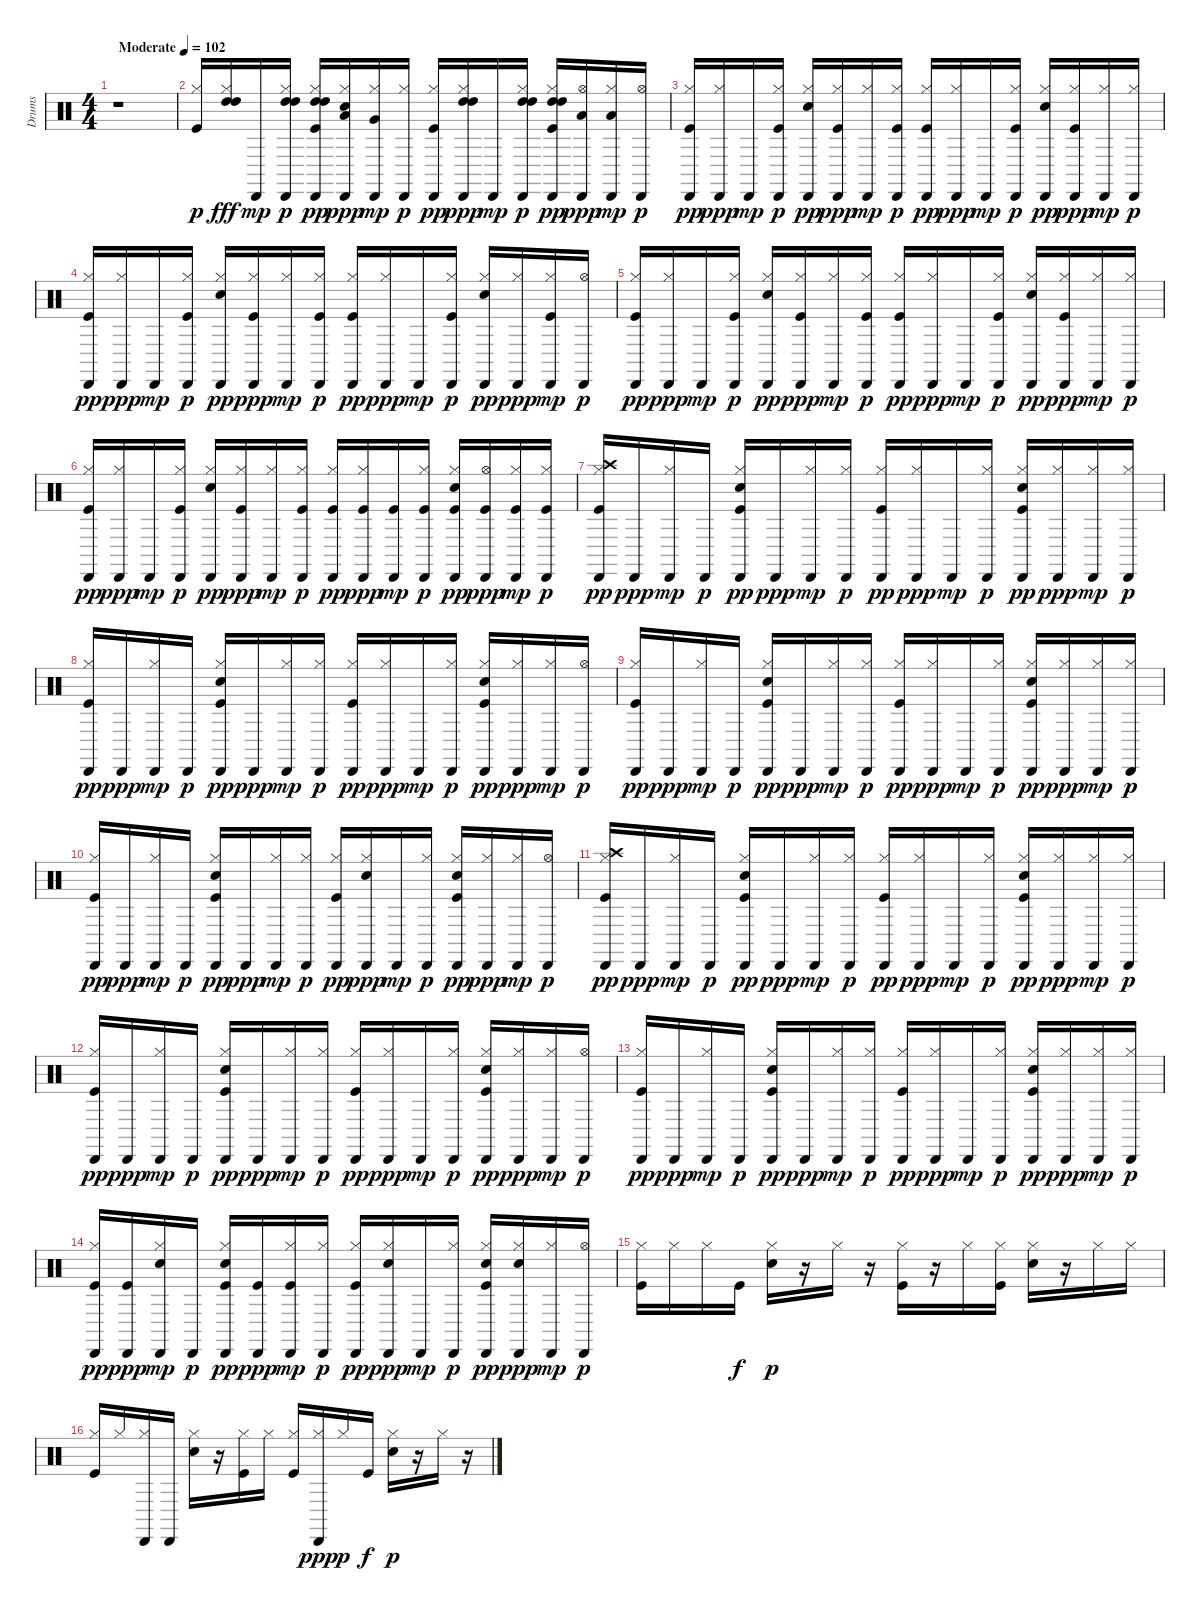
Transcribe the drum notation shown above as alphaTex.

\track ("Drums" "Drums") {instrument percussion}
\staff {score}
\articulation defaults
\ts (4 4)
\tempo (102 "Moderate")
\clef neutral
\ks c
r.1{dy p} |
("Kick (hit)" "Hi-Hat (closed)").16 ("High Tom (hit)" "Hi-Hat (closed)" "High Tom (hit)").16{dy fff} "Cabasa (hit)".16{dy mp} ("High Tom (hit)" "Hi-Hat (closed)" "High Tom (hit)" "Cabasa (hit)").16{dy p} ("High Tom (hit)" "Kick (hit)" "Hi-Hat (closed)" "High Tom (hit)" "Cabasa (hit)").16{dy pp} ("Snare (hit) 2" "Hi-Hat (closed)" "Low Tom (hit)" "Cabasa (hit)").16{dy ppp} ("Hi-Hat (closed)" "Very Low Tom (hit)" "Cabasa (hit)").16{dy mp} ("Hi-Hat (closed)" "Cabasa (hit)").16{dy p} ("Kick (hit)" "Hi-Hat (closed)" "Cabasa (hit)").16{dy pp} ("High Tom (hit)" "Hi-Hat (closed)" "High Tom (hit)" "Cabasa (hit)").16{dy ppp} "Cabasa (hit)".16{dy mp} ("High Tom (hit)" "Hi-Hat (closed)" "High Tom (hit)" "Cabasa (hit)").16{dy p} ("High Tom (hit)" "Kick (hit)" "Hi-Hat (closed)" "High Tom (hit)" "Cabasa (hit)").16{dy pp} ("Low Tom (hit)" "Hi-Hat (open)" "Cabasa (hit)").16{dy ppp} ("Low Floor Tom (hit)" "Hi-Hat (closed)" "Cabasa (hit)").16{dy mp} ("Hi-Hat (open)" "Cabasa (hit)").16{dy p} |
("Kick (hit)" "Hi-Hat (closed)" "Cabasa (hit)").16{dy pp} ("Hi-Hat (closed)" "Cabasa (hit)").16{dy ppp} "Cabasa (hit)".16{dy mp} ("Kick (hit)" "Hi-Hat (closed)" "Cabasa (hit)").16{dy p} ("Snare (hit) 2" "Hi-Hat (closed)" "Cabasa (hit)").16{dy pp} ("Kick (hit)" "Hi-Hat (closed)" "Cabasa (hit)").16{dy ppp} ("Hi-Hat (closed)" "Cabasa (hit)").16{dy mp} ("Kick (hit)" "Hi-Hat (closed)" "Cabasa (hit)").16{dy p} ("Kick (hit)" "Hi-Hat (closed)" "Cabasa (hit)").16{dy pp} ("Hi-Hat (closed)" "Cabasa (hit)").16{dy ppp} "Cabasa (hit)".16{dy mp} ("Kick (hit)" "Hi-Hat (closed)" "Cabasa (hit)").16{dy p} ("Snare (hit) 2" "Hi-Hat (closed)" "Cabasa (hit)").16{dy pp} ("Kick (hit)" "Hi-Hat (closed)" "Cabasa (hit)").16{dy ppp} ("Hi-Hat (closed)" "Cabasa (hit)").16{dy mp} ("Hi-Hat (closed)" "Cabasa (hit)").16{dy p} |
("Kick (hit)" "Hi-Hat (closed)" "Cabasa (hit)").16{dy pp} ("Hi-Hat (closed)" "Cabasa (hit)").16{dy ppp} "Cabasa (hit)".16{dy mp} ("Kick (hit)" "Hi-Hat (closed)" "Cabasa (hit)").16{dy p} ("Snare (hit) 2" "Hi-Hat (closed)" "Cabasa (hit)").16{dy pp} ("Kick (hit)" "Hi-Hat (closed)" "Cabasa (hit)").16{dy ppp} ("Hi-Hat (closed)" "Cabasa (hit)").16{dy mp} ("Kick (hit)" "Hi-Hat (closed)" "Cabasa (hit)").16{dy p} ("Kick (hit)" "Hi-Hat (closed)" "Cabasa (hit)").16{dy pp} ("Hi-Hat (closed)" "Cabasa (hit)").16{dy ppp} "Cabasa (hit)".16{dy mp} ("Kick (hit)" "Hi-Hat (closed)" "Cabasa (hit)").16{dy p} ("Snare (hit) 2" "Hi-Hat (closed)" "Cabasa (hit)").16{dy pp} ("Hi-Hat (closed)" "Cabasa (hit)").16{dy ppp} ("Kick (hit)" "Hi-Hat (closed)" "Cabasa (hit)").16{dy mp} ("Hi-Hat (open)" "Cabasa (hit)").16{dy p} |
("Kick (hit)" "Hi-Hat (closed)" "Cabasa (hit)").16{dy pp} ("Hi-Hat (closed)" "Cabasa (hit)").16{dy ppp} "Cabasa (hit)".16{dy mp} ("Kick (hit)" "Hi-Hat (closed)" "Cabasa (hit)").16{dy p} ("Snare (hit) 2" "Hi-Hat (closed)" "Cabasa (hit)").16{dy pp} ("Kick (hit)" "Hi-Hat (closed)" "Cabasa (hit)").16{dy ppp} ("Hi-Hat (closed)" "Cabasa (hit)").16{dy mp} ("Kick (hit)" "Hi-Hat (closed)" "Cabasa (hit)").16{dy p} ("Kick (hit)" "Hi-Hat (closed)" "Cabasa (hit)").16{dy pp} ("Hi-Hat (closed)" "Cabasa (hit)").16{dy ppp} "Cabasa (hit)".16{dy mp} ("Kick (hit)" "Hi-Hat (closed)" "Cabasa (hit)").16{dy p} ("Snare (hit) 2" "Hi-Hat (closed)" "Cabasa (hit)").16{dy pp} ("Kick (hit)" "Hi-Hat (closed)" "Cabasa (hit)").16{dy ppp} ("Hi-Hat (closed)" "Cabasa (hit)").16{dy mp} ("Hi-Hat (closed)" "Cabasa (hit)").16{dy p} |
("Kick (hit)" "Hi-Hat (closed)" "Cabasa (hit)").16{dy pp} ("Hi-Hat (closed)" "Cabasa (hit)").16{dy ppp} "Cabasa (hit)".16{dy mp} ("Kick (hit)" "Hi-Hat (closed)" "Cabasa (hit)").16{dy p} ("Snare (hit) 2" "Hi-Hat (closed)" "Cabasa (hit)").16{dy pp} ("Kick (hit)" "Hi-Hat (closed)" "Cabasa (hit)").16{dy ppp} ("Hi-Hat (closed)" "Cabasa (hit)").16{dy mp} ("Kick (hit)" "Hi-Hat (closed)" "Cabasa (hit)").16{dy p} ("Kick (hit)" "Hi-Hat (closed)" "Cabasa (hit)").16{dy pp} ("Kick (hit)" "Hi-Hat (closed)" "Cabasa (hit)").16{dy ppp} ("Kick (hit)" "Cabasa (hit)").16{dy mp} ("Kick (hit)" "Hi-Hat (closed)" "Cabasa (hit)").16{dy p} ("Kick (hit)" "Snare (hit) 2" "Hi-Hat (closed)" "Cabasa (hit)").16{dy pp} ("Kick (hit)" "Hi-Hat (open)" "Cabasa (hit)").16{dy ppp} ("Kick (hit)" "Hi-Hat (closed)" "Cabasa (hit)").16{dy mp} ("Kick (hit)" "Hi-Hat (closed)" "Cabasa (hit)").16{dy p} |
("Kick (hit)" "Hi-Hat (closed)" "Crash high (hit)" "Cabasa (hit)").16{dy pp} "Cabasa (hit)".16{dy ppp} ("Hi-Hat (closed)" "Cabasa (hit)").16{dy mp} "Cabasa (hit)".16{dy p} ("Kick (hit)" "Snare (hit) 2" "Hi-Hat (closed)" "Cabasa (hit)").16{dy pp} "Cabasa (hit)".16{dy ppp} ("Hi-Hat (closed)" "Cabasa (hit)").16{dy mp} ("Hi-Hat (closed)" "Cabasa (hit)").16{dy p} ("Kick (hit)" "Hi-Hat (closed)" "Cabasa (hit)").16{dy pp} ("Hi-Hat (closed)" "Cabasa (hit)").16{dy ppp} "Cabasa (hit)".16{dy mp} ("Hi-Hat (closed)" "Cabasa (hit)").16{dy p} ("Kick (hit)" "Snare (hit) 2" "Hi-Hat (closed)" "Cabasa (hit)").16{dy pp} ("Hi-Hat (closed)" "Cabasa (hit)").16{dy ppp} ("Hi-Hat (closed)" "Cabasa (hit)").16{dy mp} ("Hi-Hat (closed)" "Cabasa (hit)").16{dy p} |
("Kick (hit)" "Hi-Hat (closed)" "Cabasa (hit)").16{dy pp} "Cabasa (hit)".16{dy ppp} ("Hi-Hat (closed)" "Cabasa (hit)").16{dy mp} "Cabasa (hit)".16{dy p} ("Kick (hit)" "Snare (hit) 2" "Hi-Hat (closed)" "Cabasa (hit)").16{dy pp} "Cabasa (hit)".16{dy ppp} ("Hi-Hat (closed)" "Cabasa (hit)").16{dy mp} ("Hi-Hat (closed)" "Cabasa (hit)").16{dy p} ("Kick (hit)" "Hi-Hat (closed)" "Cabasa (hit)").16{dy pp} ("Hi-Hat (closed)" "Cabasa (hit)").16{dy ppp} "Cabasa (hit)".16{dy mp} ("Hi-Hat (closed)" "Cabasa (hit)").16{dy p} ("Kick (hit)" "Snare (hit) 2" "Hi-Hat (closed)" "Cabasa (hit)").16{dy pp} ("Hi-Hat (closed)" "Cabasa (hit)").16{dy ppp} ("Hi-Hat (closed)" "Cabasa (hit)").16{dy mp} ("Hi-Hat (open)" "Cabasa (hit)").16{dy p} |
("Kick (hit)" "Hi-Hat (closed)" "Cabasa (hit)").16{dy pp} "Cabasa (hit)".16{dy ppp} ("Hi-Hat (closed)" "Cabasa (hit)").16{dy mp} "Cabasa (hit)".16{dy p} ("Kick (hit)" "Snare (hit) 2" "Hi-Hat (closed)" "Cabasa (hit)").16{dy pp} "Cabasa (hit)".16{dy ppp} ("Hi-Hat (closed)" "Cabasa (hit)").16{dy mp} ("Hi-Hat (closed)" "Cabasa (hit)").16{dy p} ("Kick (hit)" "Hi-Hat (closed)" "Cabasa (hit)").16{dy pp} ("Hi-Hat (closed)" "Cabasa (hit)").16{dy ppp} "Cabasa (hit)".16{dy mp} ("Hi-Hat (closed)" "Cabasa (hit)").16{dy p} ("Kick (hit)" "Snare (hit) 2" "Hi-Hat (closed)" "Cabasa (hit)").16{dy pp} ("Hi-Hat (closed)" "Cabasa (hit)").16{dy ppp} ("Hi-Hat (closed)" "Cabasa (hit)").16{dy mp} ("Hi-Hat (closed)" "Cabasa (hit)").16{dy p} |
("Kick (hit)" "Hi-Hat (closed)" "Cabasa (hit)").16{dy pp} "Cabasa (hit)".16{dy ppp} ("Hi-Hat (closed)" "Cabasa (hit)").16{dy mp} "Cabasa (hit)".16{dy p} ("Kick (hit)" "Snare (hit) 2" "Hi-Hat (closed)" "Cabasa (hit)").16{dy pp} "Cabasa (hit)".16{dy ppp} ("Hi-Hat (closed)" "Cabasa (hit)").16{dy mp} ("Hi-Hat (closed)" "Cabasa (hit)").16{dy p} ("Kick (hit)" "Hi-Hat (closed)" "Cabasa (hit)").16{dy pp} ("Snare (hit) 2" "Hi-Hat (closed)" "Cabasa (hit)").16{dy ppp} "Cabasa (hit)".16{dy mp} ("Hi-Hat (closed)" "Cabasa (hit)").16{dy p} ("Kick (hit)" "Snare (hit) 2" "Hi-Hat (closed)" "Cabasa (hit)").16{dy pp} ("Hi-Hat (closed)" "Cabasa (hit)").16{dy ppp} ("Hi-Hat (closed)" "Cabasa (hit)").16{dy mp} ("Hi-Hat (open)" "Cabasa (hit)").16{dy p} |
("Kick (hit)" "Hi-Hat (closed)" "Crash high (hit)" "Cabasa (hit)").16{dy pp} "Cabasa (hit)".16{dy ppp} ("Hi-Hat (closed)" "Cabasa (hit)").16{dy mp} "Cabasa (hit)".16{dy p} ("Kick (hit)" "Snare (hit) 2" "Hi-Hat (closed)" "Cabasa (hit)").16{dy pp} "Cabasa (hit)".16{dy ppp} ("Hi-Hat (closed)" "Cabasa (hit)").16{dy mp} ("Hi-Hat (closed)" "Cabasa (hit)").16{dy p} ("Kick (hit)" "Hi-Hat (closed)" "Cabasa (hit)").16{dy pp} ("Hi-Hat (closed)" "Cabasa (hit)").16{dy ppp} "Cabasa (hit)".16{dy mp} ("Hi-Hat (closed)" "Cabasa (hit)").16{dy p} ("Kick (hit)" "Snare (hit) 2" "Hi-Hat (closed)" "Cabasa (hit)").16{dy pp} ("Hi-Hat (closed)" "Cabasa (hit)").16{dy ppp} ("Hi-Hat (closed)" "Cabasa (hit)").16{dy mp} ("Hi-Hat (closed)" "Cabasa (hit)").16{dy p} |
("Kick (hit)" "Hi-Hat (closed)" "Cabasa (hit)").16{dy pp} "Cabasa (hit)".16{dy ppp} ("Hi-Hat (closed)" "Cabasa (hit)").16{dy mp} "Cabasa (hit)".16{dy p} ("Kick (hit)" "Snare (hit) 2" "Hi-Hat (closed)" "Cabasa (hit)").16{dy pp} "Cabasa (hit)".16{dy ppp} ("Hi-Hat (closed)" "Cabasa (hit)").16{dy mp} ("Hi-Hat (closed)" "Cabasa (hit)").16{dy p} ("Kick (hit)" "Hi-Hat (closed)" "Cabasa (hit)").16{dy pp} ("Hi-Hat (closed)" "Cabasa (hit)").16{dy ppp} "Cabasa (hit)".16{dy mp} ("Hi-Hat (closed)" "Cabasa (hit)").16{dy p} ("Kick (hit)" "Snare (hit) 2" "Hi-Hat (closed)" "Cabasa (hit)").16{dy pp} ("Hi-Hat (closed)" "Cabasa (hit)").16{dy ppp} ("Hi-Hat (closed)" "Cabasa (hit)").16{dy mp} ("Hi-Hat (open)" "Cabasa (hit)").16{dy p} |
("Kick (hit)" "Hi-Hat (closed)" "Cabasa (hit)").16{dy pp} "Cabasa (hit)".16{dy ppp} ("Hi-Hat (closed)" "Cabasa (hit)").16{dy mp} "Cabasa (hit)".16{dy p} ("Kick (hit)" "Snare (hit) 2" "Hi-Hat (closed)" "Cabasa (hit)").16{dy pp} "Cabasa (hit)".16{dy ppp} ("Hi-Hat (closed)" "Cabasa (hit)").16{dy mp} ("Hi-Hat (closed)" "Cabasa (hit)").16{dy p} ("Kick (hit)" "Hi-Hat (closed)" "Cabasa (hit)").16{dy pp} ("Hi-Hat (closed)" "Cabasa (hit)").16{dy ppp} "Cabasa (hit)".16{dy mp} ("Hi-Hat (closed)" "Cabasa (hit)").16{dy p} ("Kick (hit)" "Snare (hit) 2" "Hi-Hat (closed)" "Cabasa (hit)").16{dy pp} ("Hi-Hat (closed)" "Cabasa (hit)").16{dy ppp} ("Hi-Hat (closed)" "Cabasa (hit)").16{dy mp} ("Hi-Hat (closed)" "Cabasa (hit)").16{dy p} |
("Kick (hit)" "Hi-Hat (closed)" "Cabasa (hit)").16{dy pp} ("Kick (hit)" "Cabasa (hit)").16{dy ppp} ("Snare (hit) 2" "Hi-Hat (closed)" "Cabasa (hit)").16{dy mp} "Cabasa (hit)".16{dy p} ("Kick (hit)" "Snare (hit) 2" "Hi-Hat (closed)" "Cabasa (hit)").16{dy pp} ("Kick (hit)" "Cabasa (hit)").16{dy ppp} ("Kick (hit)" "Hi-Hat (closed)" "Cabasa (hit)").16{dy mp} ("Hi-Hat (closed)" "Cabasa (hit)").16{dy p} ("Kick (hit)" "Hi-Hat (closed)" "Cabasa (hit)").16{dy pp} ("Snare (hit) 2" "Hi-Hat (closed)" "Cabasa (hit)").16{dy ppp} "Cabasa (hit)".16{dy mp} ("Hi-Hat (closed)" "Cabasa (hit)").16{dy p} ("Kick (hit)" "Snare (hit) 2" "Hi-Hat (closed)" "Cabasa (hit)").16{dy pp} ("Snare (hit) 2" "Hi-Hat (closed)" "Cabasa (hit)").16{dy ppp} ("Hi-Hat (closed)" "Cabasa (hit)").16{dy mp} ("Hi-Hat (open)" "Cabasa (hit)").16{dy p} |
("Kick (hit)" "Hi-Hat (closed)").16 "Hi-Hat (closed)".16 "Hi-Hat (closed)".16 "Kick (hit)".16{dy f} ("Snare (hit) 2" "Hi-Hat (closed)").16{dy p} r.16 "Hi-Hat (closed)".16 r.16 ("Kick (hit)" "Hi-Hat (closed)").16 r.16 "Hi-Hat (closed)".16 ("Kick (hit)" "Hi-Hat (closed)").16 ("Snare (hit) 2" "Hi-Hat (closed)").16 r.16 "Hi-Hat (closed)".16 "Hi-Hat (closed)".16 |
("Kick (hit)" "Hi-Hat (closed)").16 "Hi-Hat (closed)".16 ("Hi-Hat (closed)" "Cabasa (hit)").16 "Cabasa (hit)".16 ("Snare (hit) 2" "Hi-Hat (closed)").16 r.16 ("Kick (hit)" "Hi-Hat (closed)").16 "Hi-Hat (closed)".16 ("Kick (hit)" "Hi-Hat (closed)").16 ("Hi-Hat (closed)" "Cabasa (hit)").16{dy ppp} "Hi-Hat (closed)".16{dy p} "Kick (hit)".16{dy f} ("Snare (hit) 2" "Hi-Hat (closed)").16{dy p} r.16 "Hi-Hat (closed)".16 r.16
